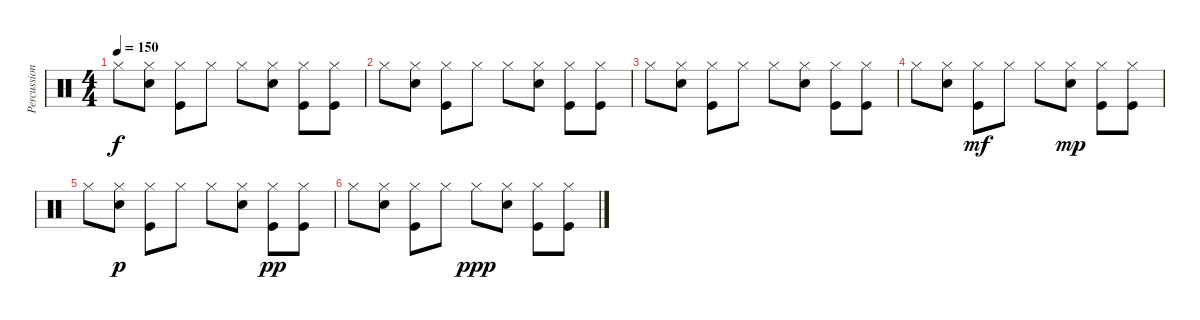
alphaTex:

\track ("Percussioni" "Percussion") {instrument percussion}
\staff {score}
\articulation defaults
\ts (4 4)
\tempo 150
\clef neutral
\ks c "Hi-Hat (closed)".8{dy f}
("Hi-Hat (closed)" "Snare (hit) 2").8 ("Hi-Hat (closed)" "Kick (hit)").8 "Hi-Hat (closed)".8 "Hi-Hat (closed)".8 ("Hi-Hat (closed)" "Snare (hit) 2").8 ("Hi-Hat (closed)" "Kick (hit)").8 ("Hi-Hat (closed)" "Kick (hit)").8 |
"Hi-Hat (closed)".8 ("Hi-Hat (closed)" "Snare (hit) 2").8 ("Hi-Hat (closed)" "Kick (hit)").8 "Hi-Hat (closed)".8 "Hi-Hat (closed)".8 ("Hi-Hat (closed)" "Snare (hit) 2").8 ("Hi-Hat (closed)" "Kick (hit)").8 ("Hi-Hat (closed)" "Kick (hit)").8 |
"Hi-Hat (closed)".8 ("Hi-Hat (closed)" "Snare (hit) 2").8 ("Hi-Hat (closed)" "Kick (hit)").8 "Hi-Hat (closed)".8 "Hi-Hat (closed)".8 ("Hi-Hat (closed)" "Snare (hit) 2").8 ("Hi-Hat (closed)" "Kick (hit)").8 ("Hi-Hat (closed)" "Kick (hit)").8 |
"Hi-Hat (closed)".8 ("Hi-Hat (closed)" "Snare (hit) 2").8 ("Hi-Hat (closed)" "Kick (hit)").8{dy mf} "Hi-Hat (closed)".8 "Hi-Hat (closed)".8 ("Hi-Hat (closed)" "Snare (hit) 2").8{dy mp} ("Hi-Hat (closed)" "Kick (hit)").8 ("Hi-Hat (closed)" "Kick (hit)").8 |
"Hi-Hat (closed)".8 ("Hi-Hat (closed)" "Snare (hit) 2").8{dy p} ("Hi-Hat (closed)" "Kick (hit)").8 "Hi-Hat (closed)".8 "Hi-Hat (closed)".8 ("Hi-Hat (closed)" "Snare (hit) 2").8 ("Hi-Hat (closed)" "Kick (hit)").8{dy pp} ("Hi-Hat (closed)" "Kick (hit)").8 |
"Hi-Hat (closed)".8 ("Hi-Hat (closed)" "Snare (hit) 2").8 ("Hi-Hat (closed)" "Kick (hit)").8 "Hi-Hat (closed)".8 "Hi-Hat (closed)".8{dy ppp} ("Hi-Hat (closed)" "Snare (hit) 2").8 ("Hi-Hat (closed)" "Kick (hit)").8 ("Hi-Hat (closed)" "Kick (hit)").8
